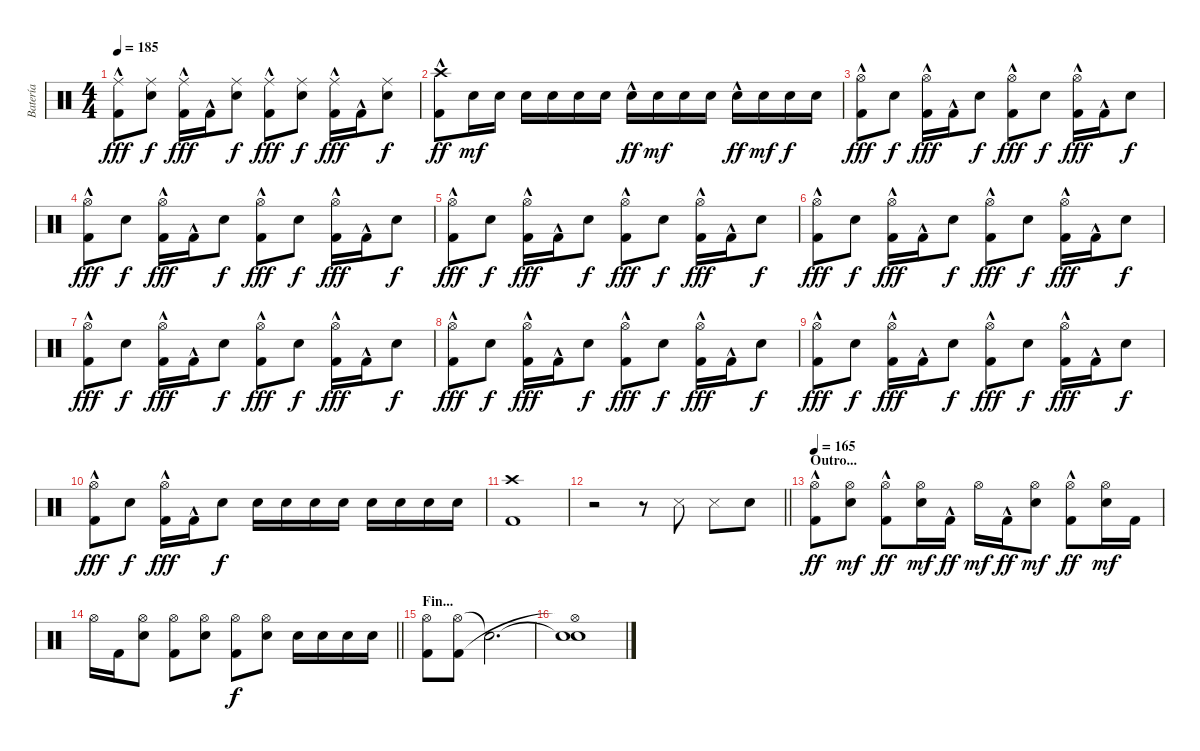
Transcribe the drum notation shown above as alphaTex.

\track ("Batería" "Batería") {instrument percussion}
\staff {score}
\articulation defaults
\ts (4 4)
\tempo 185
\clef neutral
\ks c
("Ride (middle)" "Kick (hit) 2"{hac}).8{dy fff} ("Ride (middle)" "Snare (hit) 2").8{dy f} ("Ride (middle)" "Kick (hit) 2"{hac}).16{dy fff} "Kick (hit) 2"{hac}.16 ("Ride (middle)" "Snare (hit) 2").8{dy f} ("Ride (middle)" "Kick (hit) 2"{hac}).8{dy fff} ("Ride (middle)" "Snare (hit) 2").8{dy f} ("Ride (middle)" "Kick (hit) 2"{hac}).16{dy fff} "Kick (hit) 2"{hac}.16 ("Ride (middle)" "Snare (hit) 2").8{dy f} |
("Crash high (hit)" "Kick (hit) 2"{hac}).8{dy ff} "Snare (hit) 2".16{dy mf} "Snare (hit) 2".16 "Snare (hit) 2".16 "Snare (hit) 2".16 "Snare (hit) 2".16 "Snare (hit) 2".16 "Snare (hit) 2"{hac}.16{dy ff} "Snare (hit) 2".16{dy mf} "Snare (hit) 2".16 "Snare (hit) 2".16 "Snare (hit) 2"{hac}.16{dy ff} "Snare (hit) 2".16{dy mf} "Snare (hit) 2".16{dy f} "Snare (hit) 2".16 |
("Hi-Hat (open)" "Kick (hit) 2"{hac}).8{dy fff} "Snare (hit) 2".8{dy f} ("Hi-Hat (open)" "Kick (hit) 2"{hac}).16{dy fff} "Kick (hit) 2"{hac}.16 "Snare (hit) 2".8{dy f} ("Hi-Hat (open)" "Kick (hit) 2"{hac}).8{dy fff} "Snare (hit) 2".8{dy f} ("Hi-Hat (open)" "Kick (hit) 2"{hac}).16{dy fff} "Kick (hit) 2"{hac}.16 "Snare (hit) 2".8{dy f} |
("Hi-Hat (open)" "Kick (hit) 2"{hac}).8{dy fff} "Snare (hit) 2".8{dy f} ("Hi-Hat (open)" "Kick (hit) 2"{hac}).16{dy fff} "Kick (hit) 2"{hac}.16 "Snare (hit) 2".8{dy f} ("Hi-Hat (open)" "Kick (hit) 2"{hac}).8{dy fff} "Snare (hit) 2".8{dy f} ("Hi-Hat (open)" "Kick (hit) 2"{hac}).16{dy fff} "Kick (hit) 2"{hac}.16 "Snare (hit) 2".8{dy f} |
("Hi-Hat (open)" "Kick (hit) 2"{hac}).8{dy fff} "Snare (hit) 2".8{dy f} ("Hi-Hat (open)" "Kick (hit) 2"{hac}).16{dy fff} "Kick (hit) 2"{hac}.16 "Snare (hit) 2".8{dy f} ("Hi-Hat (open)" "Kick (hit) 2"{hac}).8{dy fff} "Snare (hit) 2".8{dy f} ("Hi-Hat (open)" "Kick (hit) 2"{hac}).16{dy fff} "Kick (hit) 2"{hac}.16 "Snare (hit) 2".8{dy f} |
("Hi-Hat (open)" "Kick (hit) 2"{hac}).8{dy fff} "Snare (hit) 2".8{dy f} ("Hi-Hat (open)" "Kick (hit) 2"{hac}).16{dy fff} "Kick (hit) 2"{hac}.16 "Snare (hit) 2".8{dy f} ("Hi-Hat (open)" "Kick (hit) 2"{hac}).8{dy fff} "Snare (hit) 2".8{dy f} ("Hi-Hat (open)" "Kick (hit) 2"{hac}).16{dy fff} "Kick (hit) 2"{hac}.16 "Snare (hit) 2".8{dy f} |
("Hi-Hat (open)" "Kick (hit) 2"{hac}).8{dy fff} "Snare (hit) 2".8{dy f} ("Hi-Hat (open)" "Kick (hit) 2"{hac}).16{dy fff} "Kick (hit) 2"{hac}.16 "Snare (hit) 2".8{dy f} ("Hi-Hat (open)" "Kick (hit) 2"{hac}).8{dy fff} "Snare (hit) 2".8{dy f} ("Hi-Hat (open)" "Kick (hit) 2"{hac}).16{dy fff} "Kick (hit) 2"{hac}.16 "Snare (hit) 2".8{dy f} |
("Hi-Hat (open)" "Kick (hit) 2"{hac}).8{dy fff} "Snare (hit) 2".8{dy f} ("Hi-Hat (open)" "Kick (hit) 2"{hac}).16{dy fff} "Kick (hit) 2"{hac}.16 "Snare (hit) 2".8{dy f} ("Hi-Hat (open)" "Kick (hit) 2"{hac}).8{dy fff} "Snare (hit) 2".8{dy f} ("Hi-Hat (open)" "Kick (hit) 2"{hac}).16{dy fff} "Kick (hit) 2"{hac}.16 "Snare (hit) 2".8{dy f} |
("Hi-Hat (open)" "Kick (hit) 2"{hac}).8{dy fff} "Snare (hit) 2".8{dy f} ("Hi-Hat (open)" "Kick (hit) 2"{hac}).16{dy fff} "Kick (hit) 2"{hac}.16 "Snare (hit) 2".8{dy f} ("Hi-Hat (open)" "Kick (hit) 2"{hac}).8{dy fff} "Snare (hit) 2".8{dy f} ("Hi-Hat (open)" "Kick (hit) 2"{hac}).16{dy fff} "Kick (hit) 2"{hac}.16 "Snare (hit) 2".8{dy f} |
("Hi-Hat (open)" "Kick (hit) 2"{hac}).8{dy fff} "Snare (hit) 2".8{dy f} ("Hi-Hat (open)" "Kick (hit) 2"{hac}).16{dy fff} "Kick (hit) 2"{hac}.16 "Snare (hit) 2".8{dy f} "Snare (hit) 2".16 "Snare (hit) 2".16 "Snare (hit) 2".16 "Snare (hit) 2".16 "Snare (hit) 2".16 "Snare (hit) 2".16 "Snare (hit) 2".16 "Snare (hit) 2".16 |
("Crash high (hit)" "Kick (hit) 2").1 |
\barLineRight lightlight
r.2 r.8 "Snare (side stick) 3".8 "Snare (side stick) 3".8 "Snare (hit) 2".8 |
\section ("" "Outro...")
\tempo 165
("Hi-Hat (open)" "Kick (hit) 2"{hac}).8{dy ff} ("Hi-Hat (open)" "Snare (hit) 2").8{dy mf} ("Hi-Hat (open)" "Kick (hit) 2"{hac}).8{dy ff} ("Hi-Hat (open)" "Snare (hit) 2").16{dy mf} "Kick (hit) 2"{hac}.16{dy ff} "Hi-Hat (open)".16{dy mf} "Kick (hit) 2"{hac}.16{dy ff} ("Hi-Hat (open)" "Snare (hit) 2").8{dy mf} ("Hi-Hat (open)" "Kick (hit) 2"{hac}).8{dy ff} ("Hi-Hat (open)" "Snare (hit) 2").16{dy mf} "Kick (hit) 2".16 |
\barLineRight lightlight "Hi-Hat (open)".16 "Kick (hit) 2".16
("Hi-Hat (open)" "Snare (hit) 2").8 ("Hi-Hat (open)" "Kick (hit) 2").8 ("Hi-Hat (open)" "Snare (hit) 2").8 ("Hi-Hat (open)" "Kick (hit) 2").8{dy f} ("Hi-Hat (open)" "Snare (hit) 2").8 "Snare (hit) 2".16 "Snare (hit) 2".16 "Snare (hit) 2".16 "Snare (hit) 2".16 |
\section ("" "Fin...")
("Hi-Hat (open)" "Kick (hit) 2").8 ("Hi-Hat (open)" "Kick (hit) 2").8 "Snare (hit)"{t}.2{d} |
("Snare (hit)"{t} "Hi-Hat (open)"{t} "Snare (hit)").1
